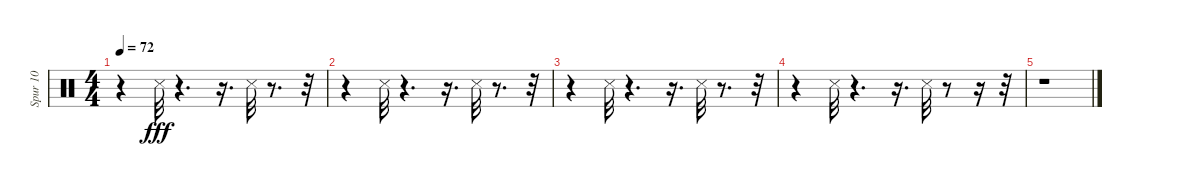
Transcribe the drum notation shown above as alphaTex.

\track ("Spur 10" "Spur 10") {instrument percussion}
\staff {score}
\articulation defaults
\ts (4 4)
\tempo 72
\clef neutral
\ks c
r.4{dy fff} "Snare (side stick) 3".32 r.4{d} r.16{d} "Snare (side stick) 3".32 r.8{d} r.32 |
r.4 "Snare (side stick) 3".32 r.4{d} r.16{d} "Snare (side stick) 3".32 r.8{d} r.32 |
r.4 "Snare (side stick) 3".32 r.4{d} r.16{d} "Snare (side stick) 3".32 r.8{d} r.32 |
r.4 "Snare (side stick) 3".32 r.4{d} r.16{d} "Snare (side stick) 3".32 r.8 r.16 r.32 |
r.1
